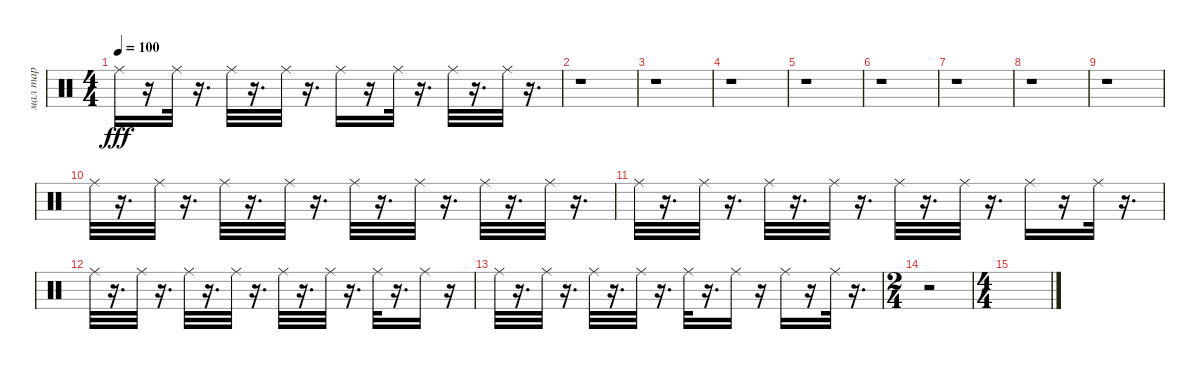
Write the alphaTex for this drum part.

\track ("мал тар" "мал тар") {instrument percussion}
\staff {score}
\articulation defaults
\ts (4 4)
\tempo 100
\clef neutral
\ks c "Ride (middle)".16{dy fff}
r.16 "Ride (middle)".32 r.16{d} "Ride (middle)".32 r.16{d} "Ride (middle)".32 r.16{d} "Ride (middle)".16 r.16 "Ride (middle)".32 r.16{d} "Ride (middle)".32 r.16{d} "Ride (middle)".32 r.16{d} |
r.1 |
r.1 |
r.1 |
r.1 |
r.1 |
r.1 |
r.1 |
r.1 |
"Ride (middle)".32 r.16{d} "Ride (middle)".32 r.16{d} "Ride (middle)".32 r.16{d} "Ride (middle)".32 r.16{d} "Ride (middle)".32 r.16{d} "Ride (middle)".32 r.16{d} "Ride (middle)".32 r.16{d} "Ride (middle)".32 r.16{d} |
"Ride (middle)".32 r.16{d} "Ride (middle)".32 r.16{d} "Ride (middle)".32 r.16{d} "Ride (middle)".32 r.16{d} "Ride (middle)".32 r.16{d} "Ride (middle)".32 r.16{d} "Ride (middle)".16 r.16 "Ride (middle)".32 r.16{d} |
"Ride (middle)".32 r.16{d} "Ride (middle)".32 r.16{d} "Ride (middle)".32 r.16{d} "Ride (middle)".32 r.16{d} "Ride (middle)".32 r.16{d} "Ride (middle)".32 r.16{d} "Ride (middle)".32 r.16{d} "Ride (middle)".16 r.16 |
"Ride (middle)".32 r.16{d} "Ride (middle)".32 r.16{d} "Ride (middle)".32 r.16{d} "Ride (middle)".32 r.16{d} "Ride (middle)".32 r.16{d} "Ride (middle)".16 r.16 "Ride (middle)".16 r.16 "Ride (middle)".32 r.16{d} |
\ts (2 4)
r.2 |
\ts (4 4)
